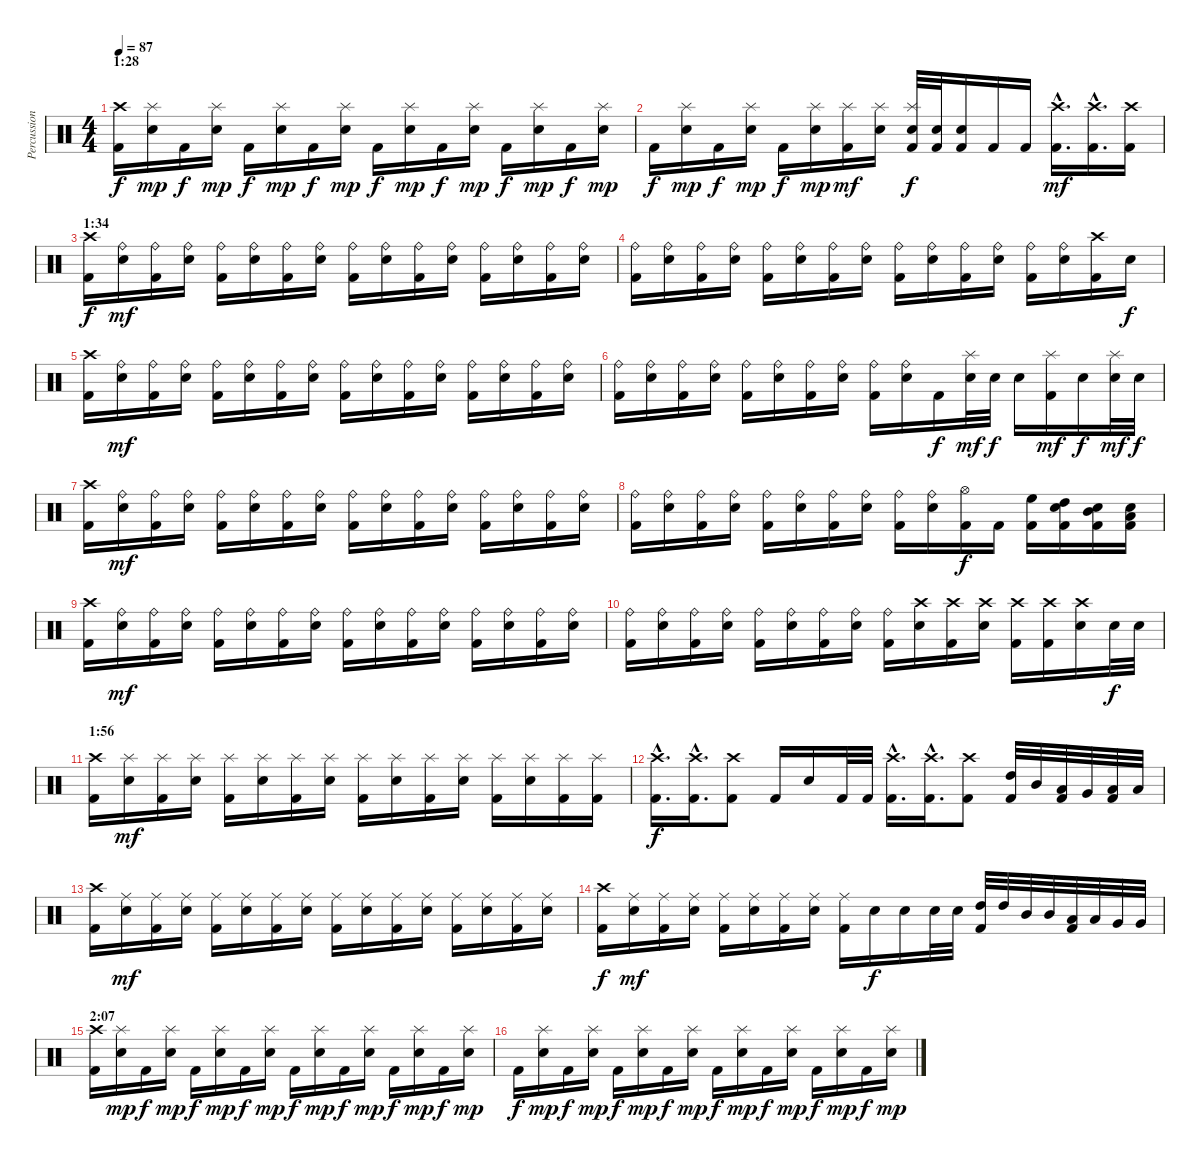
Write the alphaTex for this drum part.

\track ("Percussion" "Percussion") {instrument percussion}
\staff {score}
\articulation defaults
\ts (4 4)
\section ("" "1:28")
\tempo 87
\clef neutral
\ks c
("Crash high (hit)" "Kick (hit) 2").16{dy f} ("Splash (hit)" "Snare (hit) 2").16{dy mp} "Kick (hit) 2".16{dy f} ("Splash (hit)" "Snare (hit) 2").16{dy mp} "Kick (hit) 2".16{dy f} ("Splash (hit)" "Snare (hit) 2").16{dy mp} "Kick (hit) 2".16{dy f} ("Splash (hit)" "Snare (hit) 2").16{dy mp} "Kick (hit) 2".16{dy f} ("Splash (hit)" "Snare (hit) 2").16{dy mp} "Kick (hit) 2".16{dy f} ("Splash (hit)" "Snare (hit) 2").16{dy mp} "Kick (hit) 2".16{dy f} ("Splash (hit)" "Snare (hit) 2").16{dy mp} "Kick (hit) 2".16{dy f} ("Splash (hit)" "Snare (hit) 2").16{dy mp} |
"Kick (hit) 2".16{dy f} ("Splash (hit)" "Snare (hit) 2").16{dy mp} "Kick (hit) 2".16{dy f} ("Splash (hit)" "Snare (hit) 2").16{dy mp} "Kick (hit) 2".16{dy f} ("Splash (hit)" "Snare (hit) 2").16{dy mp} ("Splash (hit)" "Kick (hit) 2").16{dy mf} ("Splash (hit)" "Snare (hit) 2").16 ("Splash (hit)" "Snare (hit) 2" "Kick (hit) 2").32{dy f} ("Snare (hit) 2" "Kick (hit) 2").32 ("Snare (hit) 2" "Kick (hit) 2").16 "Kick (hit) 2".16 "Kick (hit) 2".16 ("Crash high (hit)"{hac} "Kick (hit) 2"{hac}).16{d dy mf} ("Crash high (hit)"{hac} "Kick (hit) 2"{hac}).16{d} ("Crash high (hit)" "Kick (hit) 2").16 |
\section ("" "1:34")
("Crash high (hit)" "Kick (hit) 2").16{dy f} ("Ride (bell)" "Snare (hit) 2").16{dy mf} ("Ride (bell)" "Kick (hit) 2").16 ("Ride (bell)" "Snare (hit) 2").16 ("Ride (bell)" "Kick (hit) 2").16 ("Ride (bell)" "Snare (hit) 2").16 ("Ride (bell)" "Kick (hit) 2").16 ("Ride (bell)" "Snare (hit) 2").16 ("Ride (bell)" "Kick (hit) 2").16 ("Ride (bell)" "Snare (hit) 2").16 ("Ride (bell)" "Kick (hit) 2").16 ("Ride (bell)" "Snare (hit) 2").16 ("Ride (bell)" "Kick (hit) 2").16 ("Ride (bell)" "Snare (hit) 2").16 ("Ride (bell)" "Kick (hit) 2").16 ("Ride (bell)" "Snare (hit) 2").16 |
("Ride (bell)" "Kick (hit) 2").16 ("Ride (bell)" "Snare (hit) 2").16 ("Ride (bell)" "Kick (hit) 2").16 ("Ride (bell)" "Snare (hit) 2").16 ("Ride (bell)" "Kick (hit) 2").16 ("Ride (bell)" "Snare (hit) 2").16 ("Ride (bell)" "Kick (hit) 2").16 ("Ride (bell)" "Snare (hit) 2").16 ("Ride (bell)" "Kick (hit) 2").16 ("Ride (bell)" "Snare (hit) 2").16 ("Ride (bell)" "Kick (hit) 2").16 ("Ride (bell)" "Snare (hit) 2").16 ("Ride (bell)" "Kick (hit) 2").16 ("Ride (bell)" "Snare (hit) 2").16 ("Crash high (hit)" "Kick (hit) 2").16 "Snare (hit) 2".16{dy f} |
("Crash high (hit)" "Kick (hit) 2").16 ("Ride (bell)" "Snare (hit) 2").16{dy mf} ("Ride (bell)" "Kick (hit) 2").16 ("Ride (bell)" "Snare (hit) 2").16 ("Ride (bell)" "Kick (hit) 2").16 ("Ride (bell)" "Snare (hit) 2").16 ("Ride (bell)" "Kick (hit) 2").16 ("Ride (bell)" "Snare (hit) 2").16 ("Ride (bell)" "Kick (hit) 2").16 ("Ride (bell)" "Snare (hit) 2").16 ("Ride (bell)" "Kick (hit) 2").16 ("Ride (bell)" "Snare (hit) 2").16 ("Ride (bell)" "Kick (hit) 2").16 ("Ride (bell)" "Snare (hit) 2").16 ("Ride (bell)" "Kick (hit) 2").16 ("Ride (bell)" "Snare (hit) 2").16 |
("Ride (bell)" "Kick (hit) 2").16 ("Ride (bell)" "Snare (hit) 2").16 ("Ride (bell)" "Kick (hit) 2").16 ("Ride (bell)" "Snare (hit) 2").16 ("Ride (bell)" "Kick (hit) 2").16 ("Ride (bell)" "Snare (hit) 2").16 ("Ride (bell)" "Kick (hit) 2").16 ("Ride (bell)" "Snare (hit) 2").16 ("Ride (bell)" "Kick (hit) 2").16 ("Ride (bell)" "Snare (hit) 2").16 "Kick (hit) 2".16{dy f} ("Splash (hit)" "Snare (hit) 2").32{dy mf} "Snare (hit) 2".32{dy f} "Snare (hit) 2".16 ("Splash (hit)" "Kick (hit) 2").16{dy mf} "Snare (hit) 2".16{dy f} ("Splash (hit)" "Snare (hit) 2").32{dy mf} "Snare (hit) 2".32{dy f} |
("Crash high (hit)" "Kick (hit) 2").16 ("Ride (bell)" "Snare (hit) 2").16{dy mf} ("Ride (bell)" "Kick (hit) 2").16 ("Ride (bell)" "Snare (hit) 2").16 ("Ride (bell)" "Kick (hit) 2").16 ("Ride (bell)" "Snare (hit) 2").16 ("Ride (bell)" "Kick (hit) 2").16 ("Ride (bell)" "Snare (hit) 2").16 ("Ride (bell)" "Kick (hit) 2").16 ("Ride (bell)" "Snare (hit) 2").16 ("Ride (bell)" "Kick (hit) 2").16 ("Ride (bell)" "Snare (hit) 2").16 ("Ride (bell)" "Kick (hit) 2").16 ("Ride (bell)" "Snare (hit) 2").16 ("Ride (bell)" "Kick (hit) 2").16 ("Ride (bell)" "Snare (hit) 2").16 |
("Ride (bell)" "Kick (hit) 2").16 ("Ride (bell)" "Snare (hit) 2").16 ("Ride (bell)" "Kick (hit) 2").16 ("Ride (bell)" "Snare (hit) 2").16 ("Ride (bell)" "Kick (hit) 2").16 ("Ride (bell)" "Snare (hit) 2").16 ("Ride (bell)" "Kick (hit) 2").16 ("Ride (bell)" "Snare (hit) 2").16 ("Ride (bell)" "Kick (hit) 2").16 ("Ride (bell)" "Snare (hit) 2").16 ("Hi-Hat (open)" "Kick (hit) 2").16{dy f} "Kick (hit) 2".16 ("High Floor Tom (hit)" "Kick (hit) 2").16 ("High Tom (hit)" "Snare (hit) 2" "Kick (hit) 2").16 ("Mid Tom (hit)" "Snare (hit) 2" "Kick (hit) 2").16 ("Low Tom (hit)" "Snare (hit) 2" "Kick (hit) 2").16 |
("Crash high (hit)" "Kick (hit) 2").16 ("Ride (bell)" "Snare (hit) 2").16{dy mf} ("Ride (bell)" "Kick (hit) 2").16 ("Ride (bell)" "Snare (hit) 2").16 ("Ride (bell)" "Kick (hit) 2").16 ("Ride (bell)" "Snare (hit) 2").16 ("Ride (bell)" "Kick (hit) 2").16 ("Ride (bell)" "Snare (hit) 2").16 ("Ride (bell)" "Kick (hit) 2").16 ("Ride (bell)" "Snare (hit) 2").16 ("Ride (bell)" "Kick (hit) 2").16 ("Ride (bell)" "Snare (hit) 2").16 ("Ride (bell)" "Kick (hit) 2").16 ("Ride (bell)" "Snare (hit) 2").16 ("Ride (bell)" "Kick (hit) 2").16 ("Ride (bell)" "Snare (hit) 2").16 |
("Ride (bell)" "Kick (hit) 2").16 ("Ride (bell)" "Snare (hit) 2").16 ("Ride (bell)" "Kick (hit) 2").16 ("Ride (bell)" "Snare (hit) 2").16 ("Ride (bell)" "Kick (hit) 2").16 ("Ride (bell)" "Snare (hit) 2").16 ("Ride (bell)" "Kick (hit) 2").16 ("Ride (bell)" "Snare (hit) 2").16 ("Ride (bell)" "Kick (hit) 2").16 ("Crash high (hit)" "Snare (hit) 2").16 ("Crash high (hit)" "Kick (hit) 2").16 ("Crash high (hit)" "Snare (hit) 2").16 ("Crash high (hit)" "Kick (hit) 2").16 ("Crash high (hit)" "Kick (hit) 2").16 ("Crash high (hit)" "Snare (hit) 2").16 "Snare (hit) 2".32{dy f} "Snare (hit) 2".32 |
\section ("" "1:56")
("Crash high (hit)" "Kick (hit) 2").16 ("Splash (hit)" "Snare (hit) 2").16{dy mf} ("Splash (hit)" "Kick (hit) 2").16 ("Splash (hit)" "Snare (hit) 2").16 ("Splash (hit)" "Kick (hit) 2").16 ("Splash (hit)" "Snare (hit) 2").16 ("Splash (hit)" "Kick (hit) 2").16 ("Splash (hit)" "Snare (hit) 2").16 ("Splash (hit)" "Kick (hit) 2").16 ("Splash (hit)" "Snare (hit) 2").16 ("Splash (hit)" "Kick (hit) 2").16 ("Splash (hit)" "Snare (hit) 2").16 ("Splash (hit)" "Kick (hit) 2").16 ("Splash (hit)" "Snare (hit) 2").16 ("Splash (hit)" "Kick (hit) 2").16 ("Splash (hit)" "Kick (hit) 2").16 |
("Crash high (hit)"{hac} "Kick (hit) 2"{hac}).16{d dy f} ("Crash high (hit)"{hac} "Kick (hit) 2"{hac}).16{d} ("Crash high (hit)" "Kick (hit) 2").8 "Kick (hit) 2".16 "Snare (hit) 2".16 "Kick (hit) 2".32 "Kick (hit) 2".32 ("Crash high (hit)"{hac} "Kick (hit) 2"{hac}).16{d} ("Crash high (hit)"{hac} "Kick (hit) 2"{hac}).16{d} ("Crash high (hit)" "Kick (hit) 2").8 ("High Tom (hit)" "Kick (hit) 2").32 "Mid Tom (hit)".32 ("Low Tom (hit)" "Kick (hit) 2").32 "Very Low Tom (hit)".32 ("Low Floor Tom (hit)" "Kick (hit) 2").32 "Low Floor Tom (hit)".32 |
("Crash high (hit)" "Kick (hit) 2").16 ("Ride (middle)" "Snare (hit) 2").16{dy mf} ("Ride (middle)" "Kick (hit) 2").16 ("Ride (middle)" "Snare (hit) 2").16 ("Ride (middle)" "Kick (hit) 2").16 ("Ride (middle)" "Snare (hit) 2").16 ("Ride (middle)" "Kick (hit) 2").16 ("Ride (middle)" "Snare (hit) 2").16 ("Ride (middle)" "Kick (hit) 2").16 ("Ride (middle)" "Snare (hit) 2").16 ("Ride (middle)" "Kick (hit) 2").16 ("Ride (middle)" "Snare (hit) 2").16 ("Ride (middle)" "Kick (hit) 2").16 ("Ride (middle)" "Snare (hit) 2").16 ("Ride (middle)" "Kick (hit) 2").16 ("Ride (middle)" "Snare (hit) 2").16 |
("Crash high (hit)" "Kick (hit) 2").16{dy f} ("Ride (middle)" "Snare (hit) 2").16{dy mf} ("Ride (middle)" "Kick (hit) 2").16 ("Ride (middle)" "Snare (hit) 2").16 ("Ride (middle)" "Kick (hit) 2").16 ("Ride (middle)" "Snare (hit) 2").16 ("Ride (middle)" "Kick (hit) 2").16 ("Ride (middle)" "Snare (hit) 2").16 ("Ride (middle)" "Kick (hit) 2").16 "Snare (hit) 2".16{dy f} "Snare (hit) 2".16 "Snare (hit) 2".32 "Snare (hit) 2".32 ("High Tom (hit)" "Kick (hit) 2").32 "High Tom (hit)".32 "Mid Tom (hit)".32 "Mid Tom (hit)".32 ("Low Tom (hit)" "Kick (hit) 2").32 "Low Tom (hit)".32 "Very Low Tom (hit)".32 "Very Low Tom (hit)".32 |
\section ("" "2:07")
("Crash high (hit)" "Kick (hit) 2").16 ("Splash (hit)" "Snare (hit) 2").16{dy mp} "Kick (hit) 2".16{dy f} ("Splash (hit)" "Snare (hit) 2").16{dy mp} "Kick (hit) 2".16{dy f} ("Splash (hit)" "Snare (hit) 2").16{dy mp} "Kick (hit) 2".16{dy f} ("Splash (hit)" "Snare (hit) 2").16{dy mp} "Kick (hit) 2".16{dy f} ("Splash (hit)" "Snare (hit) 2").16{dy mp} "Kick (hit) 2".16{dy f} ("Splash (hit)" "Snare (hit) 2").16{dy mp} "Kick (hit) 2".16{dy f} ("Splash (hit)" "Snare (hit) 2").16{dy mp} "Kick (hit) 2".16{dy f} ("Splash (hit)" "Snare (hit) 2").16{dy mp} |
"Kick (hit) 2".16{dy f} ("Splash (hit)" "Snare (hit) 2").16{dy mp} "Kick (hit) 2".16{dy f} ("Splash (hit)" "Snare (hit) 2").16{dy mp} "Kick (hit) 2".16{dy f} ("Splash (hit)" "Snare (hit) 2").16{dy mp} "Kick (hit) 2".16{dy f} ("Splash (hit)" "Snare (hit) 2").16{dy mp} "Kick (hit) 2".16{dy f} ("Splash (hit)" "Snare (hit) 2").16{dy mp} "Kick (hit) 2".16{dy f} ("Splash (hit)" "Snare (hit) 2").16{dy mp} "Kick (hit) 2".16{dy f} ("Splash (hit)" "Snare (hit) 2").16{dy mp} "Kick (hit) 2".16{dy f} ("Splash (hit)" "Snare (hit) 2").16{dy mp}
